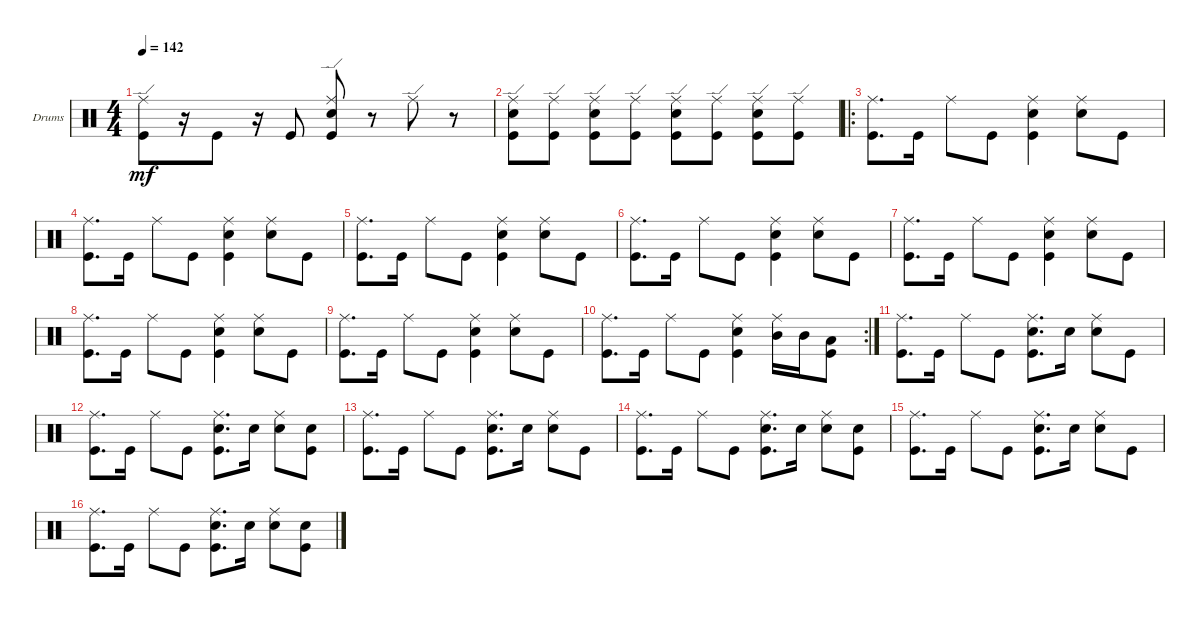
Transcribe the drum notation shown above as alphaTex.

\bracketExtendMode groupsimilarinstruments
\firstSystemTrackNameOrientation horizontal
\otherSystemsTrackNameOrientation horizontal
\track ("Drumkit" "Drums") {instrument percussion}
\staff {score}
\articulation defaults
\ts (4 4)
\tempo 142
\clef neutral
\ks c
("Kick (hit)" "Ride (edge)").8{dy mf} r.16 "Kick (hit)".8 r.16 "Kick (hit)".8 ("Kick (hit)" "Snare (hit) 2" "Ride (edge)").8 r.8 "Ride (edge)".8 r.8 |
("Kick (hit)" "Ride (edge)" "Snare (hit) 2").8 ("Kick (hit)" "Ride (edge)").8 ("Kick (hit)" "Ride (edge)" "Snare (hit) 2").8 ("Kick (hit)" "Ride (edge)").8 ("Kick (hit)" "Ride (edge)" "Snare (hit) 2").8 ("Kick (hit)" "Ride (edge)").8 ("Kick (hit)" "Ride (edge)" "Snare (hit) 2").8 ("Kick (hit)" "Ride (edge)").8 |
\ro
("Kick (hit)" "Ride (middle)").8{d} "Kick (hit)".16 "Ride (middle)".8 "Kick (hit)".8 ("Kick (hit)" "Snare (hit) 2" "Ride (middle)").4 ("Snare (hit) 2" "Ride (middle)").8 "Kick (hit)".8 |
("Kick (hit)" "Ride (middle)").8{d} "Kick (hit)".16 "Ride (middle)".8 "Kick (hit)".8 ("Kick (hit)" "Snare (hit) 2" "Ride (middle)").4 ("Snare (hit) 2" "Ride (middle)").8 "Kick (hit)".8 |
("Kick (hit)" "Ride (middle)").8{d} "Kick (hit)".16 "Ride (middle)".8 "Kick (hit)".8 ("Kick (hit)" "Snare (hit) 2" "Ride (middle)").4 ("Snare (hit) 2" "Ride (middle)").8 "Kick (hit)".8 |
("Kick (hit)" "Ride (middle)").8{d} "Kick (hit)".16 "Ride (middle)".8 "Kick (hit)".8 ("Kick (hit)" "Snare (hit) 2" "Ride (middle)").4 ("Snare (hit) 2" "Ride (middle)").8 "Kick (hit)".8 |
("Kick (hit)" "Ride (middle)").8{d} "Kick (hit)".16 "Ride (middle)".8 "Kick (hit)".8 ("Kick (hit)" "Snare (hit) 2" "Ride (middle)").4 ("Snare (hit) 2" "Ride (middle)").8 "Kick (hit)".8 |
("Kick (hit)" "Ride (middle)").8{d} "Kick (hit)".16 "Ride (middle)".8 "Kick (hit)".8 ("Kick (hit)" "Snare (hit) 2" "Ride (middle)").4 ("Snare (hit) 2" "Ride (middle)").8 "Kick (hit)".8 |
("Kick (hit)" "Ride (middle)").8{d} "Kick (hit)".16 "Ride (middle)".8 "Kick (hit)".8 ("Kick (hit)" "Snare (hit) 2" "Ride (middle)").4 ("Snare (hit) 2" "Ride (middle)").8 "Kick (hit)".8 |
\rc 2
("Kick (hit)" "Ride (middle)").8{d} "Kick (hit)".16 "Ride (middle)".8 "Kick (hit)".8 ("Kick (hit)" "Snare (hit) 2" "Ride (middle)").4 ("Mid Tom (hit)" "Ride (middle)").16 "Mid Tom (hit)".16 ("Low Tom (hit)" "Kick (hit)").8 |
("Kick (hit)" "Ride (middle)").8{d} "Kick (hit)".16 "Ride (middle)".8 "Kick (hit)".8 ("Kick (hit)" "Snare (hit) 2" "Ride (middle)").8{d} "Snare (hit) 2".16 ("Snare (hit) 2" "Ride (middle)").8 "Kick (hit)".8 |
("Kick (hit)" "Ride (middle)").8{d} "Kick (hit)".16 "Ride (middle)".8 "Kick (hit)".8 ("Kick (hit)" "Snare (hit) 2" "Ride (middle)").8{d} "Snare (hit) 2".16 ("Snare (hit) 2" "Ride (middle)").8 ("Kick (hit)" "Snare (hit) 2").8 |
("Kick (hit)" "Ride (middle)").8{d} "Kick (hit)".16 "Ride (middle)".8 "Kick (hit)".8 ("Kick (hit)" "Snare (hit) 2" "Ride (middle)").8{d} "Snare (hit) 2".16 ("Snare (hit) 2" "Ride (middle)").8 "Kick (hit)".8 |
("Kick (hit)" "Ride (middle)").8{d} "Kick (hit)".16 "Ride (middle)".8 "Kick (hit)".8 ("Kick (hit)" "Snare (hit) 2" "Ride (middle)").8{d} "Snare (hit) 2".16 ("Snare (hit) 2" "Ride (middle)").8 ("Kick (hit)" "Snare (hit) 2").8 |
("Kick (hit)" "Ride (middle)").8{d} "Kick (hit)".16 "Ride (middle)".8 "Kick (hit)".8 ("Kick (hit)" "Snare (hit) 2" "Ride (middle)").8{d} "Snare (hit) 2".16 ("Snare (hit) 2" "Ride (middle)").8 "Kick (hit)".8 |
("Kick (hit)" "Ride (middle)").8{d} "Kick (hit)".16 "Ride (middle)".8 "Kick (hit)".8 ("Kick (hit)" "Snare (hit) 2" "Ride (middle)").8{d} "Snare (hit) 2".16 ("Snare (hit) 2" "Ride (middle)").8 ("Kick (hit)" "Snare (hit) 2").8
